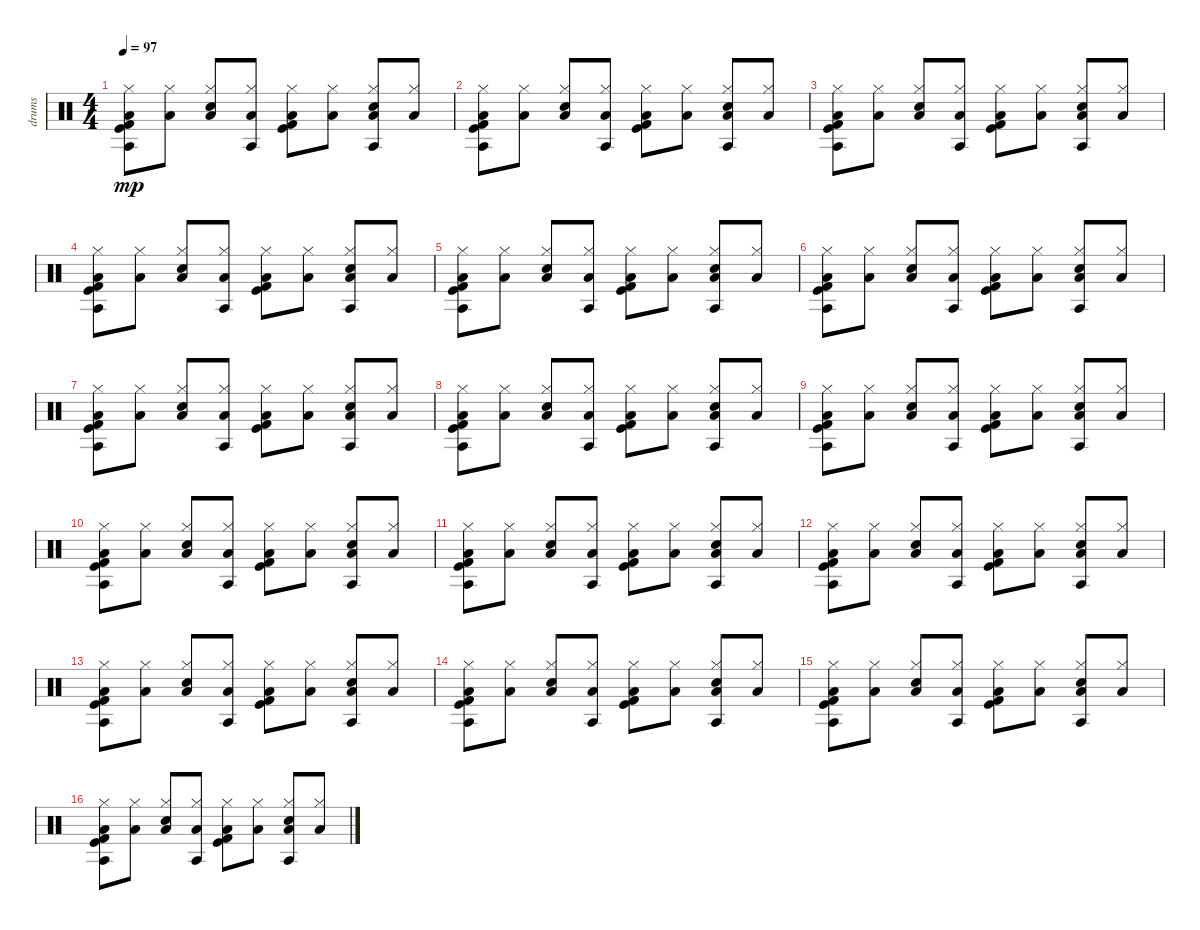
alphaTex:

\track ("drums" "drums") {instrument percussion}
\staff {score}
\articulation defaults
\ts (4 4)
\tempo 97
\clef neutral
\ks c
("Kick (hit)" "Kick (hit) 2" "Agogo tow (hit)" "Hi-Hat (closed)" "Low Floor Tom (hit)").8{dy mp} ("Hi-Hat (closed)" "Low Floor Tom (hit)").8 ("Hi-Hat (closed)" "Electric Snare (hit)" "Low Floor Tom (hit)").8 ("Agogo tow (hit)" "Hi-Hat (closed)" "Low Floor Tom (hit)").8 ("Kick (hit)" "Kick (hit) 2" "Hi-Hat (closed)" "Low Floor Tom (hit)").8 ("Hi-Hat (closed)" "Low Floor Tom (hit)").8 ("Agogo tow (hit)" "Hi-Hat (closed)" "Electric Snare (hit)" "Low Floor Tom (hit)").8 ("Hi-Hat (closed)" "Low Floor Tom (hit)").8 |
("Kick (hit)" "Kick (hit) 2" "Agogo tow (hit)" "Hi-Hat (closed)" "Low Floor Tom (hit)").8 ("Hi-Hat (closed)" "Low Floor Tom (hit)").8 ("Hi-Hat (closed)" "Electric Snare (hit)" "Low Floor Tom (hit)").8 ("Agogo tow (hit)" "Hi-Hat (closed)" "Low Floor Tom (hit)").8 ("Kick (hit)" "Kick (hit) 2" "Hi-Hat (closed)" "Low Floor Tom (hit)").8 ("Hi-Hat (closed)" "Low Floor Tom (hit)").8 ("Agogo tow (hit)" "Hi-Hat (closed)" "Electric Snare (hit)" "Low Floor Tom (hit)").8 ("Hi-Hat (closed)" "Low Floor Tom (hit)").8 |
("Kick (hit)" "Kick (hit) 2" "Agogo tow (hit)" "Hi-Hat (closed)" "Low Floor Tom (hit)").8 ("Hi-Hat (closed)" "Low Floor Tom (hit)").8 ("Hi-Hat (closed)" "Electric Snare (hit)" "Low Floor Tom (hit)").8 ("Agogo tow (hit)" "Hi-Hat (closed)" "Low Floor Tom (hit)").8 ("Kick (hit)" "Kick (hit) 2" "Hi-Hat (closed)" "Low Floor Tom (hit)").8 ("Hi-Hat (closed)" "Low Floor Tom (hit)").8 ("Agogo tow (hit)" "Hi-Hat (closed)" "Electric Snare (hit)" "Low Floor Tom (hit)").8 ("Hi-Hat (closed)" "Low Floor Tom (hit)").8 |
("Kick (hit)" "Kick (hit) 2" "Hi-Hat (closed)" "Agogo tow (hit)" "Low Floor Tom (hit)").8 ("Hi-Hat (closed)" "Low Floor Tom (hit)").8 ("Hi-Hat (closed)" "Electric Snare (hit)" "Low Floor Tom (hit)").8 ("Hi-Hat (closed)" "Agogo tow (hit)" "Low Floor Tom (hit)").8 ("Kick (hit)" "Kick (hit) 2" "Hi-Hat (closed)" "Low Floor Tom (hit)").8 ("Hi-Hat (closed)" "Low Floor Tom (hit)").8 ("Hi-Hat (closed)" "Agogo tow (hit)" "Electric Snare (hit)" "Low Floor Tom (hit)").8 ("Hi-Hat (closed)" "Low Floor Tom (hit)").8 |
("Kick (hit)" "Kick (hit) 2" "Agogo tow (hit)" "Hi-Hat (closed)" "Low Floor Tom (hit)").8 ("Hi-Hat (closed)" "Low Floor Tom (hit)").8 ("Hi-Hat (closed)" "Electric Snare (hit)" "Low Floor Tom (hit)").8 ("Agogo tow (hit)" "Hi-Hat (closed)" "Low Floor Tom (hit)").8 ("Kick (hit)" "Kick (hit) 2" "Hi-Hat (closed)" "Low Floor Tom (hit)").8 ("Hi-Hat (closed)" "Low Floor Tom (hit)").8 ("Agogo tow (hit)" "Hi-Hat (closed)" "Electric Snare (hit)" "Low Floor Tom (hit)").8 ("Hi-Hat (closed)" "Low Floor Tom (hit)").8 |
("Kick (hit)" "Kick (hit) 2" "Hi-Hat (closed)" "Agogo tow (hit)" "Low Floor Tom (hit)").8 ("Hi-Hat (closed)" "Low Floor Tom (hit)").8 ("Hi-Hat (closed)" "Electric Snare (hit)" "Low Floor Tom (hit)").8 ("Hi-Hat (closed)" "Agogo tow (hit)" "Low Floor Tom (hit)").8 ("Kick (hit)" "Kick (hit) 2" "Hi-Hat (closed)" "Low Floor Tom (hit)").8 ("Hi-Hat (closed)" "Low Floor Tom (hit)").8 ("Hi-Hat (closed)" "Agogo tow (hit)" "Electric Snare (hit)" "Low Floor Tom (hit)").8 ("Hi-Hat (closed)" "Low Floor Tom (hit)").8 |
("Kick (hit)" "Kick (hit) 2" "Hi-Hat (closed)" "Agogo tow (hit)" "Low Floor Tom (hit)").8 ("Hi-Hat (closed)" "Low Floor Tom (hit)").8 ("Hi-Hat (closed)" "Electric Snare (hit)" "Low Floor Tom (hit)").8 ("Hi-Hat (closed)" "Agogo tow (hit)" "Low Floor Tom (hit)").8 ("Kick (hit)" "Kick (hit) 2" "Hi-Hat (closed)" "Low Floor Tom (hit)").8 ("Hi-Hat (closed)" "Low Floor Tom (hit)").8 ("Hi-Hat (closed)" "Agogo tow (hit)" "Electric Snare (hit)" "Low Floor Tom (hit)").8 ("Hi-Hat (closed)" "Low Floor Tom (hit)").8 |
("Kick (hit)" "Kick (hit) 2" "Hi-Hat (closed)" "Agogo tow (hit)" "Low Floor Tom (hit)").8 ("Hi-Hat (closed)" "Low Floor Tom (hit)").8 ("Hi-Hat (closed)" "Electric Snare (hit)" "Low Floor Tom (hit)").8 ("Hi-Hat (closed)" "Agogo tow (hit)" "Low Floor Tom (hit)").8 ("Kick (hit)" "Kick (hit) 2" "Hi-Hat (closed)" "Low Floor Tom (hit)").8 ("Hi-Hat (closed)" "Low Floor Tom (hit)").8 ("Hi-Hat (closed)" "Agogo tow (hit)" "Electric Snare (hit)" "Low Floor Tom (hit)").8 ("Hi-Hat (closed)" "Low Floor Tom (hit)").8 |
("Kick (hit)" "Kick (hit) 2" "Agogo tow (hit)" "Hi-Hat (closed)" "Low Floor Tom (hit)").8 ("Hi-Hat (closed)" "Low Floor Tom (hit)").8 ("Hi-Hat (closed)" "Electric Snare (hit)" "Low Floor Tom (hit)").8 ("Agogo tow (hit)" "Hi-Hat (closed)" "Low Floor Tom (hit)").8 ("Kick (hit)" "Kick (hit) 2" "Hi-Hat (closed)" "Low Floor Tom (hit)").8 ("Hi-Hat (closed)" "Low Floor Tom (hit)").8 ("Agogo tow (hit)" "Hi-Hat (closed)" "Electric Snare (hit)" "Low Floor Tom (hit)").8 ("Hi-Hat (closed)" "Low Floor Tom (hit)").8 |
("Kick (hit)" "Kick (hit) 2" "Hi-Hat (closed)" "Agogo tow (hit)" "Low Floor Tom (hit)").8 ("Hi-Hat (closed)" "Low Floor Tom (hit)").8 ("Hi-Hat (closed)" "Electric Snare (hit)" "Low Floor Tom (hit)").8 ("Hi-Hat (closed)" "Agogo tow (hit)" "Low Floor Tom (hit)").8 ("Kick (hit)" "Kick (hit) 2" "Hi-Hat (closed)" "Low Floor Tom (hit)").8 ("Hi-Hat (closed)" "Low Floor Tom (hit)").8 ("Hi-Hat (closed)" "Agogo tow (hit)" "Electric Snare (hit)" "Low Floor Tom (hit)").8 ("Hi-Hat (closed)" "Low Floor Tom (hit)").8 |
("Kick (hit)" "Kick (hit) 2" "Hi-Hat (closed)" "Agogo tow (hit)" "Low Floor Tom (hit)").8 ("Hi-Hat (closed)" "Low Floor Tom (hit)").8 ("Hi-Hat (closed)" "Electric Snare (hit)" "Low Floor Tom (hit)").8 ("Hi-Hat (closed)" "Agogo tow (hit)" "Low Floor Tom (hit)").8 ("Kick (hit)" "Kick (hit) 2" "Hi-Hat (closed)" "Low Floor Tom (hit)").8 ("Hi-Hat (closed)" "Low Floor Tom (hit)").8 ("Hi-Hat (closed)" "Agogo tow (hit)" "Electric Snare (hit)" "Low Floor Tom (hit)").8 ("Hi-Hat (closed)" "Low Floor Tom (hit)").8 |
("Kick (hit)" "Kick (hit) 2" "Hi-Hat (closed)" "Agogo tow (hit)" "Low Floor Tom (hit)").8 ("Hi-Hat (closed)" "Low Floor Tom (hit)").8 ("Hi-Hat (closed)" "Electric Snare (hit)" "Low Floor Tom (hit)").8 ("Hi-Hat (closed)" "Agogo tow (hit)" "Low Floor Tom (hit)").8 ("Kick (hit)" "Kick (hit) 2" "Hi-Hat (closed)" "Low Floor Tom (hit)").8 ("Hi-Hat (closed)" "Low Floor Tom (hit)").8 ("Hi-Hat (closed)" "Agogo tow (hit)" "Electric Snare (hit)" "Low Floor Tom (hit)").8 ("Hi-Hat (closed)" "Low Floor Tom (hit)").8 |
("Kick (hit)" "Kick (hit) 2" "Agogo tow (hit)" "Hi-Hat (closed)" "Low Floor Tom (hit)").8 ("Hi-Hat (closed)" "Low Floor Tom (hit)").8 ("Hi-Hat (closed)" "Electric Snare (hit)" "Low Floor Tom (hit)").8 ("Agogo tow (hit)" "Hi-Hat (closed)" "Low Floor Tom (hit)").8 ("Kick (hit)" "Kick (hit) 2" "Hi-Hat (closed)" "Low Floor Tom (hit)").8 ("Hi-Hat (closed)" "Low Floor Tom (hit)").8 ("Agogo tow (hit)" "Hi-Hat (closed)" "Electric Snare (hit)" "Low Floor Tom (hit)").8 ("Hi-Hat (closed)" "Low Floor Tom (hit)").8 |
("Kick (hit)" "Kick (hit) 2" "Hi-Hat (closed)" "Agogo tow (hit)" "Low Floor Tom (hit)").8 ("Hi-Hat (closed)" "Low Floor Tom (hit)").8 ("Hi-Hat (closed)" "Electric Snare (hit)" "Low Floor Tom (hit)").8 ("Hi-Hat (closed)" "Agogo tow (hit)" "Low Floor Tom (hit)").8 ("Kick (hit)" "Kick (hit) 2" "Hi-Hat (closed)" "Low Floor Tom (hit)").8 ("Hi-Hat (closed)" "Low Floor Tom (hit)").8 ("Hi-Hat (closed)" "Agogo tow (hit)" "Electric Snare (hit)" "Low Floor Tom (hit)").8 ("Hi-Hat (closed)" "Low Floor Tom (hit)").8 |
("Kick (hit)" "Kick (hit) 2" "Hi-Hat (closed)" "Agogo tow (hit)" "Low Floor Tom (hit)").8 ("Hi-Hat (closed)" "Low Floor Tom (hit)").8 ("Hi-Hat (closed)" "Electric Snare (hit)" "Low Floor Tom (hit)").8 ("Hi-Hat (closed)" "Agogo tow (hit)" "Low Floor Tom (hit)").8 ("Kick (hit)" "Kick (hit) 2" "Hi-Hat (closed)" "Low Floor Tom (hit)").8 ("Hi-Hat (closed)" "Low Floor Tom (hit)").8 ("Hi-Hat (closed)" "Agogo tow (hit)" "Electric Snare (hit)" "Low Floor Tom (hit)").8 ("Hi-Hat (closed)" "Low Floor Tom (hit)").8 |
("Kick (hit)" "Kick (hit) 2" "Hi-Hat (closed)" "Agogo tow (hit)" "Low Floor Tom (hit)").8 ("Hi-Hat (closed)" "Low Floor Tom (hit)").8 ("Hi-Hat (closed)" "Electric Snare (hit)" "Low Floor Tom (hit)").8 ("Hi-Hat (closed)" "Agogo tow (hit)" "Low Floor Tom (hit)").8 ("Kick (hit)" "Kick (hit) 2" "Hi-Hat (closed)" "Low Floor Tom (hit)").8 ("Hi-Hat (closed)" "Low Floor Tom (hit)").8 ("Hi-Hat (closed)" "Agogo tow (hit)" "Electric Snare (hit)" "Low Floor Tom (hit)").8 ("Hi-Hat (closed)" "Low Floor Tom (hit)").8
